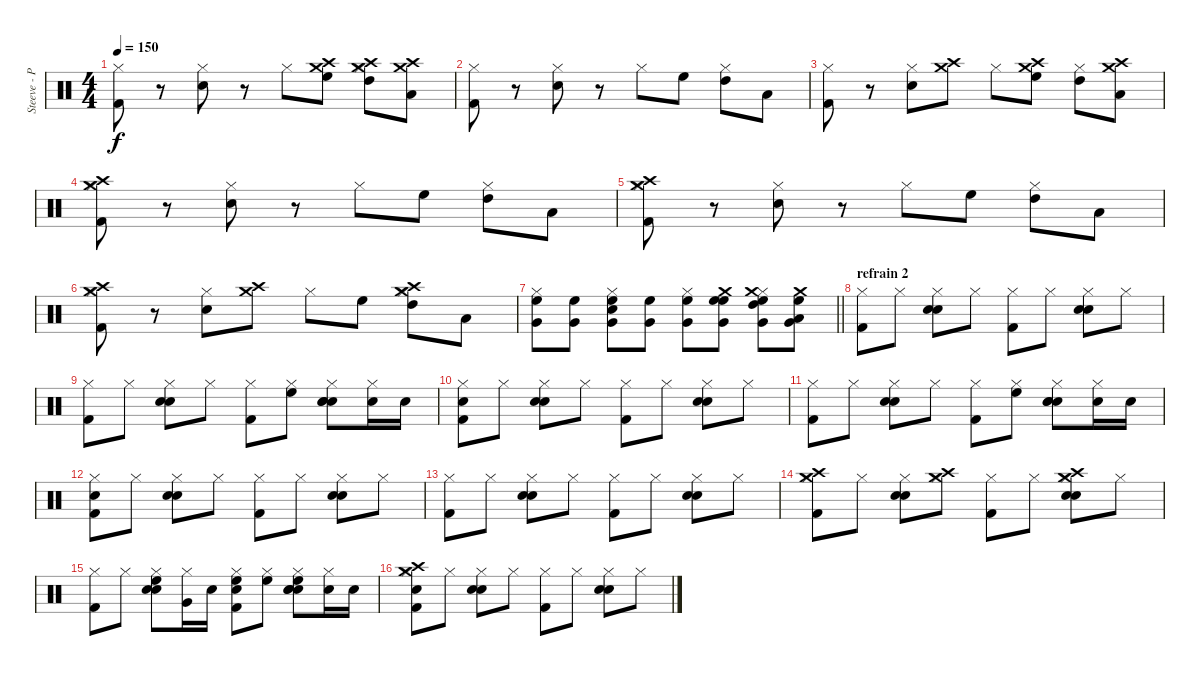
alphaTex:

\track ("Steeve - Percussions" "Steeve - P") {instrument percussion}
\staff {score}
\articulation defaults
\ts (4 4)
\tempo 150
\clef neutral
\ks c
("Hi-Hat (closed)" "Kick (hit) 2").8{dy f} r.8 ("Hi-Hat (closed)" "Snare (hit) 2").8 r.8 "Hi-Hat (closed)".8 ("High Floor Tom (hit)" "Crash medium (hit)" "Crash high (hit)").8 ("Hi-Hat (closed)" "High Tom (hit)" "Crash medium (hit)" "Crash high (hit)").8 ("Low Tom (hit)" "Crash medium (hit)" "Crash high (hit)").8 |
("Hi-Hat (closed)" "Kick (hit) 2").8 r.8 ("Hi-Hat (closed)" "Snare (hit) 2").8 r.8 "Hi-Hat (closed)".8 "High Floor Tom (hit)".8 ("Hi-Hat (closed)" "High Tom (hit)").8 "Low Tom (hit)".8 |
("Hi-Hat (closed)" "Kick (hit) 2").8 r.8 ("Hi-Hat (closed)" "Snare (hit) 2").8 ("Crash medium (hit)" "Crash high (hit)").8 "Hi-Hat (closed)".8 ("High Floor Tom (hit)" "Crash medium (hit)" "Crash high (hit)").8 ("Hi-Hat (closed)" "High Tom (hit)").8 ("Low Tom (hit)" "Crash medium (hit)" "Crash high (hit)").8 |
("Hi-Hat (closed)" "Kick (hit) 2" "Crash medium (hit)" "Crash high (hit)").8 r.8 ("Hi-Hat (closed)" "Snare (hit) 2").8 r.8 "Hi-Hat (closed)".8 "High Floor Tom (hit)".8 ("Hi-Hat (closed)" "High Tom (hit)").8 "Low Tom (hit)".8 |
("Hi-Hat (closed)" "Kick (hit) 2" "Crash high (hit)" "Crash medium (hit)").8 r.8 ("Hi-Hat (closed)" "Snare (hit) 2").8 r.8 "Hi-Hat (closed)".8 "High Floor Tom (hit)".8 ("Hi-Hat (closed)" "High Tom (hit)").8 "Low Tom (hit)".8 |
("Hi-Hat (closed)" "Kick (hit) 2" "Crash medium (hit)" "Crash high (hit)").8 r.8 ("Hi-Hat (closed)" "Snare (hit) 2").8 ("Crash medium (hit)" "Crash high (hit)").8 "Hi-Hat (closed)".8 "High Floor Tom (hit)".8 ("Hi-Hat (closed)" "High Tom (hit)" "Crash medium (hit)" "Crash high (hit)").8 "Low Tom (hit)".8 |
\barLineRight lightlight
("Hi-Hat (closed)" "High Floor Tom (hit)" "Very Low Tom (hit)").8 ("High Floor Tom (hit)" "Very Low Tom (hit)").8 ("Hi-Hat (closed)" "High Floor Tom (hit)" "Snare (hit) 2" "Very Low Tom (hit)").8 ("High Floor Tom (hit)" "Very Low Tom (hit)").8 ("Hi-Hat (closed)" "High Floor Tom (hit)" "Very Low Tom (hit)").8 ("High Floor Tom (hit)" "High Floor Tom (hit)" "Very Low Tom (hit)" "Crash medium (hit)").8 ("Hi-Hat (closed)" "High Floor Tom (hit)" "High Tom (hit)" "Very Low Tom (hit)" "Crash medium (hit)").8 ("High Floor Tom (hit)" "Low Tom (hit)" "Very Low Tom (hit)" "Crash medium (hit)").8 |
\section ("" "refrain 2")
("Hi-Hat (closed)" "Kick (hit) 2").8 "Hi-Hat (closed)".8 ("Hi-Hat (closed)" "Snare (hit) 2" "Electric Snare (hit)").8 "Hi-Hat (closed)".8 ("Hi-Hat (closed)" "Kick (hit) 2").8 "Hi-Hat (closed)".8 ("Hi-Hat (closed)" "Snare (hit) 2" "Electric Snare (hit)").8 "Hi-Hat (closed)".8 |
("Hi-Hat (closed)" "Kick (hit) 2").8 "Hi-Hat (closed)".8 ("Hi-Hat (closed)" "Snare (hit) 2" "Electric Snare (hit)").8 "Hi-Hat (closed)".8 ("Hi-Hat (closed)" "Kick (hit) 2").8 ("Hi-Hat (closed)" "High Floor Tom (hit)").8 ("Hi-Hat (closed)" "Snare (hit) 2" "Electric Snare (hit)" "Snare (hit) 2").8 ("Hi-Hat (closed)" "Snare (hit) 2").16 "Snare (hit) 2".16 |
("Hi-Hat (closed)" "Kick (hit) 2" "Snare (hit) 2").8 "Hi-Hat (closed)".8 ("Hi-Hat (closed)" "Snare (hit) 2" "Electric Snare (hit)").8 "Hi-Hat (closed)".8 ("Hi-Hat (closed)" "Kick (hit) 2").8 "Hi-Hat (closed)".8 ("Hi-Hat (closed)" "Snare (hit) 2" "Electric Snare (hit)").8 "Hi-Hat (closed)".8 |
("Hi-Hat (closed)" "Kick (hit) 2").8 "Hi-Hat (closed)".8 ("Hi-Hat (closed)" "Snare (hit) 2" "Electric Snare (hit)").8 "Hi-Hat (closed)".8 ("Hi-Hat (closed)" "Kick (hit) 2").8 ("Hi-Hat (closed)" "High Floor Tom (hit)").8 ("Hi-Hat (closed)" "Snare (hit) 2" "Electric Snare (hit)" "Snare (hit) 2").8 ("Hi-Hat (closed)" "Snare (hit) 2").16 "Snare (hit) 2".16 |
("Hi-Hat (closed)" "Kick (hit) 2" "Snare (hit) 2").8 "Hi-Hat (closed)".8 ("Hi-Hat (closed)" "Snare (hit) 2" "Electric Snare (hit)").8 "Hi-Hat (closed)".8 ("Hi-Hat (closed)" "Kick (hit) 2").8 "Hi-Hat (closed)".8 ("Hi-Hat (closed)" "Snare (hit) 2" "Electric Snare (hit)").8 "Hi-Hat (closed)".8 |
("Hi-Hat (closed)" "Kick (hit) 2").8 "Hi-Hat (closed)".8 ("Hi-Hat (closed)" "Snare (hit) 2" "Electric Snare (hit)").8 "Hi-Hat (closed)".8 ("Hi-Hat (closed)" "Kick (hit) 2").8 "Hi-Hat (closed)".8 ("Hi-Hat (closed)" "Snare (hit) 2" "Electric Snare (hit)").8 "Hi-Hat (closed)".8 |
("Hi-Hat (closed)" "Kick (hit) 2" "Crash high (hit)" "Crash medium (hit)").8 "Hi-Hat (closed)".8 ("Hi-Hat (closed)" "Snare (hit) 2" "Electric Snare (hit)").8 ("Hi-Hat (closed)" "Crash high (hit)" "Crash medium (hit)").8 ("Hi-Hat (closed)" "Kick (hit) 2").8 "Hi-Hat (closed)".8 ("Hi-Hat (closed)" "Snare (hit) 2" "Electric Snare (hit)" "Crash high (hit)" "Crash medium (hit)").8 "Hi-Hat (closed)".8 |
("Hi-Hat (closed)" "Kick (hit) 2").8 "Hi-Hat (closed)".8 ("Hi-Hat (closed)" "Snare (hit) 2" "Electric Snare (hit)" "High Floor Tom (hit)").8 ("Hi-Hat (closed)" "Very Low Tom (hit)").16 "Snare (hit) 2".16 ("Hi-Hat (closed)" "Kick (hit) 2" "Snare (hit) 2" "High Floor Tom (hit)").8 ("Hi-Hat (closed)" "High Floor Tom (hit)").8 ("Hi-Hat (closed)" "Snare (hit) 2" "Electric Snare (hit)" "Snare (hit) 2" "High Floor Tom (hit)").8 ("Hi-Hat (closed)" "Snare (hit) 2").16 "Snare (hit) 2".16 |
("Hi-Hat (closed)" "Kick (hit) 2" "Crash high (hit)" "Snare (hit) 2" "Crash medium (hit)").8 "Hi-Hat (closed)".8 ("Hi-Hat (closed)" "Snare (hit) 2" "Electric Snare (hit)").8 "Hi-Hat (closed)".8 ("Hi-Hat (closed)" "Kick (hit) 2").8 "Hi-Hat (closed)".8 ("Hi-Hat (closed)" "Snare (hit) 2" "Electric Snare (hit)").8 "Hi-Hat (closed)".8
